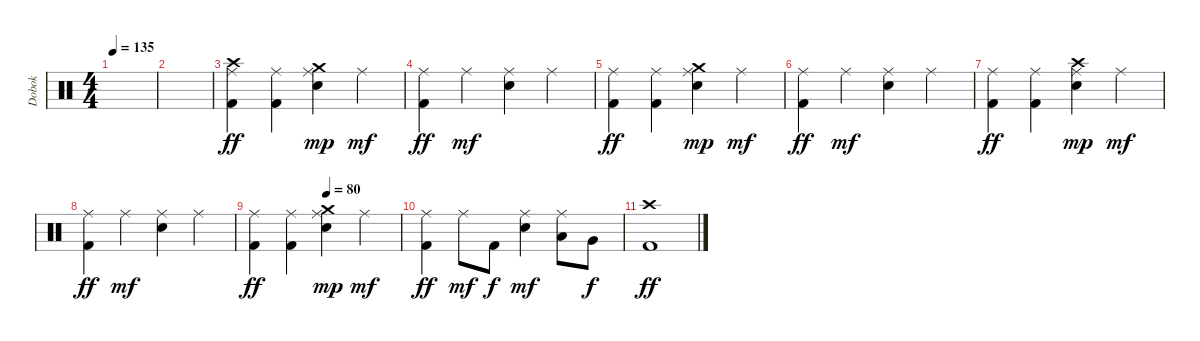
\track ("Dobok" "Dobok") {instrument percussion}
\staff {score}
\articulation defaults
\ts (4 4)
\tempo 135
\clef neutral
\ks c
|
|
("Ride (middle)" "Crash high (hit)" "Kick (hit) 2").4{dy ff} ("Ride (middle)" "Kick (hit) 2").4 ("Ride (middle)" "Crash medium (hit)" "Electric Snare (hit)").4{dy mp} "Ride (middle)".4{dy mf} |
("Ride (middle)" "Kick (hit) 2").4{dy ff} "Ride (middle)".4{dy mf} ("Ride (middle)" "Electric Snare (hit)").4 "Ride (middle)".4 |
("Ride (middle)" "Kick (hit) 2").4{dy ff} ("Ride (middle)" "Kick (hit) 2").4 ("Ride (middle)" "Crash medium (hit)" "Electric Snare (hit)").4{dy mp} "Ride (middle)".4{dy mf} |
("Ride (middle)" "Kick (hit) 2").4{dy ff} "Ride (middle)".4{dy mf} ("Ride (middle)" "Electric Snare (hit)").4 "Ride (middle)".4 |
("Ride (middle)" "Kick (hit) 2").4{dy ff} ("Ride (middle)" "Kick (hit) 2").4 ("Ride (middle)" "Crash high (hit)" "Electric Snare (hit)").4{dy mp} "Ride (middle)".4{dy mf} |
("Ride (middle)" "Kick (hit) 2").4{dy ff} "Ride (middle)".4{dy mf} ("Ride (middle)" "Electric Snare (hit)").4 "Ride (middle)".4 |
\tempo (80 0.5)
("Ride (middle)" "Kick (hit) 2").4{dy ff} ("Ride (middle)" "Kick (hit) 2").4 ("Ride (middle)" "Crash medium (hit)" "Electric Snare (hit)").4{dy mp} "Ride (middle)".4{dy mf} |
("Ride (middle)" "Kick (hit) 2").4{dy ff} "Ride (middle)".8{dy mf} "Kick (hit) 2".8{dy f} ("Ride (middle)" "Electric Snare (hit)").4{dy mf} ("Ride (middle)" "Low Tom (hit)").8 "Very Low Tom (hit)".8{dy f} |
("Crash high (hit)" "Kick (hit) 2").1{dy ff}
